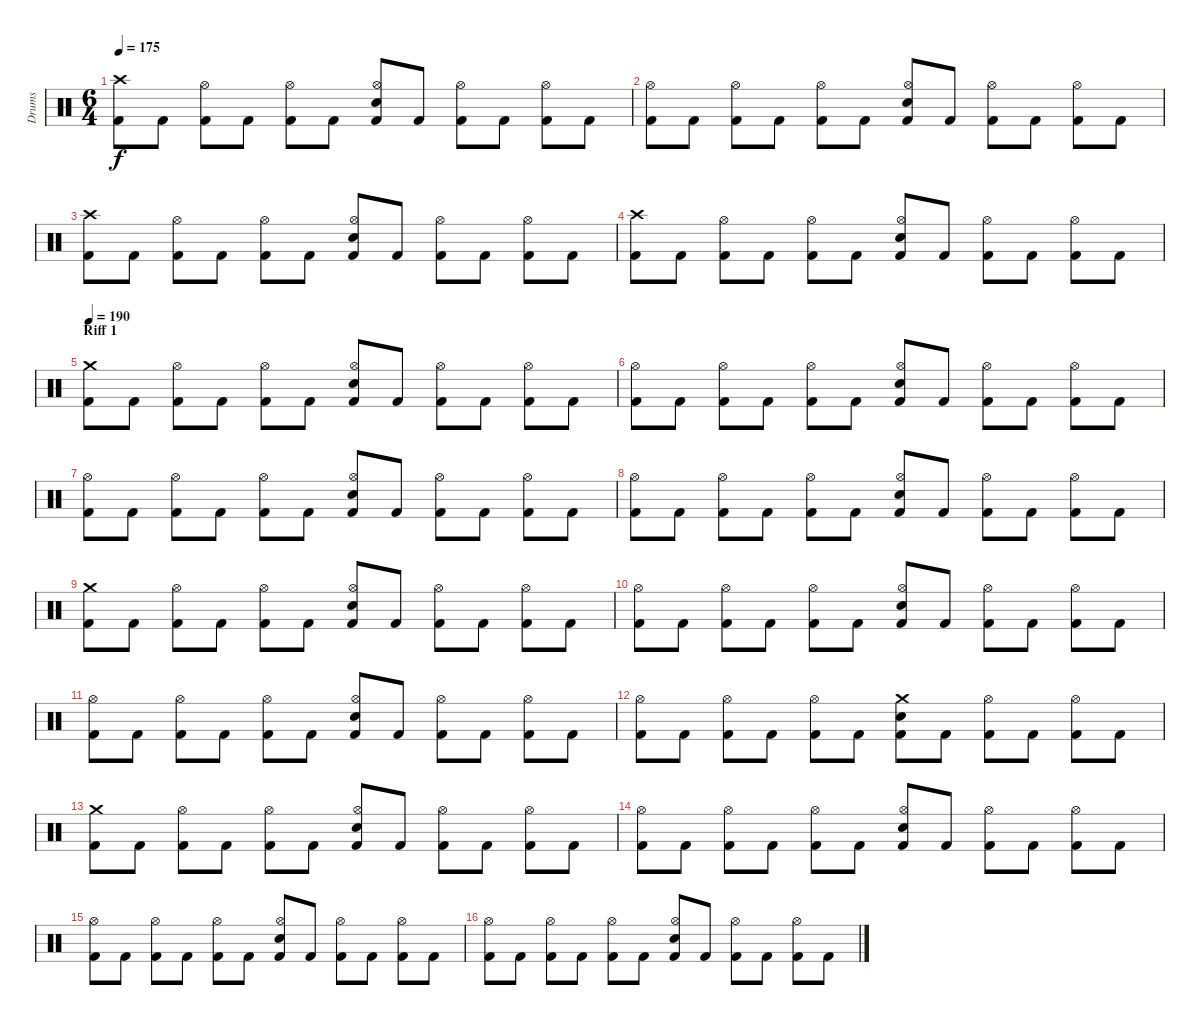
\track ("Drums" "Drums") {instrument percussion}
\staff {score}
\articulation defaults
\ts (6 4)
\tempo 175
\clef neutral
\ks c
("Crash high (hit)" "Kick (hit) 2").8{dy f} "Kick (hit) 2".8 ("Hi-Hat (open)" "Kick (hit) 2").8 "Kick (hit) 2".8 ("Hi-Hat (open)" "Kick (hit) 2").8 "Kick (hit) 2".8 ("Hi-Hat (open)" "Electric Snare (hit)" "Kick (hit) 2").8 "Kick (hit) 2".8 ("Hi-Hat (open)" "Kick (hit) 2").8 "Kick (hit) 2".8 ("Hi-Hat (open)" "Kick (hit) 2").8 "Kick (hit) 2".8 |
("Hi-Hat (open)" "Kick (hit) 2").8 "Kick (hit) 2".8 ("Hi-Hat (open)" "Kick (hit) 2").8 "Kick (hit) 2".8 ("Hi-Hat (open)" "Kick (hit) 2").8 "Kick (hit) 2".8 ("Hi-Hat (open)" "Electric Snare (hit)" "Kick (hit) 2").8 "Kick (hit) 2".8 ("Hi-Hat (open)" "Kick (hit) 2").8 "Kick (hit) 2".8 ("Hi-Hat (open)" "Kick (hit) 2").8 "Kick (hit) 2".8 |
("Crash high (hit)" "Kick (hit) 2").8 "Kick (hit) 2".8 ("Hi-Hat (open)" "Kick (hit) 2").8 "Kick (hit) 2".8 ("Hi-Hat (open)" "Kick (hit) 2").8 "Kick (hit) 2".8 ("Hi-Hat (open)" "Electric Snare (hit)" "Kick (hit) 2").8 "Kick (hit) 2".8 ("Hi-Hat (open)" "Kick (hit) 2").8 "Kick (hit) 2".8 ("Hi-Hat (open)" "Kick (hit) 2").8 "Kick (hit) 2".8 |
("Crash high (hit)" "Kick (hit) 2").8 "Kick (hit) 2".8 ("Hi-Hat (open)" "Kick (hit) 2").8 "Kick (hit) 2".8 ("Hi-Hat (open)" "Kick (hit) 2").8 "Kick (hit) 2".8 ("Hi-Hat (open)" "Electric Snare (hit)" "Kick (hit) 2").8 "Kick (hit) 2".8 ("Hi-Hat (open)" "Kick (hit) 2").8 "Kick (hit) 2".8 ("Hi-Hat (open)" "Kick (hit) 2").8 "Kick (hit) 2".8 |
\section ("" "Riff 1")
\tempo 190
("Crash medium (hit)" "Kick (hit) 2").8{volume 13} "Kick (hit) 2".8 ("Hi-Hat (open)" "Kick (hit) 2").8 "Kick (hit) 2".8 ("Hi-Hat (open)" "Kick (hit) 2").8 "Kick (hit) 2".8 ("Hi-Hat (open)" "Electric Snare (hit)" "Kick (hit) 2").8 "Kick (hit) 2".8 ("Hi-Hat (open)" "Kick (hit) 2").8 "Kick (hit) 2".8 ("Hi-Hat (open)" "Kick (hit) 2").8 "Kick (hit) 2".8 |
("Hi-Hat (open)" "Kick (hit) 2").8 "Kick (hit) 2".8 ("Hi-Hat (open)" "Kick (hit) 2").8 "Kick (hit) 2".8 ("Hi-Hat (open)" "Kick (hit) 2").8 "Kick (hit) 2".8 ("Hi-Hat (open)" "Electric Snare (hit)" "Kick (hit) 2").8 "Kick (hit) 2".8 ("Hi-Hat (open)" "Kick (hit) 2").8 "Kick (hit) 2".8 ("Hi-Hat (open)" "Kick (hit) 2").8 "Kick (hit) 2".8 |
("Hi-Hat (open)" "Kick (hit) 2").8 "Kick (hit) 2".8 ("Hi-Hat (open)" "Kick (hit) 2").8 "Kick (hit) 2".8 ("Hi-Hat (open)" "Kick (hit) 2").8 "Kick (hit) 2".8 ("Hi-Hat (open)" "Electric Snare (hit)" "Kick (hit) 2").8 "Kick (hit) 2".8 ("Hi-Hat (open)" "Kick (hit) 2").8 "Kick (hit) 2".8 ("Hi-Hat (open)" "Kick (hit) 2").8 "Kick (hit) 2".8 |
("Hi-Hat (open)" "Kick (hit) 2").8 "Kick (hit) 2".8 ("Hi-Hat (open)" "Kick (hit) 2").8 "Kick (hit) 2".8 ("Hi-Hat (open)" "Kick (hit) 2").8 "Kick (hit) 2".8 ("Hi-Hat (open)" "Electric Snare (hit)" "Kick (hit) 2").8 "Kick (hit) 2".8 ("Hi-Hat (open)" "Kick (hit) 2").8 "Kick (hit) 2".8 ("Hi-Hat (open)" "Kick (hit) 2").8 "Kick (hit) 2".8 |
("Crash medium (hit)" "Kick (hit) 2").8 "Kick (hit) 2".8 ("Hi-Hat (open)" "Kick (hit) 2").8 "Kick (hit) 2".8 ("Hi-Hat (open)" "Kick (hit) 2").8 "Kick (hit) 2".8 ("Hi-Hat (open)" "Electric Snare (hit)" "Kick (hit) 2").8 "Kick (hit) 2".8 ("Hi-Hat (open)" "Kick (hit) 2").8 "Kick (hit) 2".8 ("Hi-Hat (open)" "Kick (hit) 2").8 "Kick (hit) 2".8 |
("Hi-Hat (open)" "Kick (hit) 2").8 "Kick (hit) 2".8 ("Hi-Hat (open)" "Kick (hit) 2").8 "Kick (hit) 2".8 ("Hi-Hat (open)" "Kick (hit) 2").8 "Kick (hit) 2".8 ("Hi-Hat (open)" "Electric Snare (hit)" "Kick (hit) 2").8 "Kick (hit) 2".8 ("Hi-Hat (open)" "Kick (hit) 2").8 "Kick (hit) 2".8 ("Hi-Hat (open)" "Kick (hit) 2").8 "Kick (hit) 2".8 |
("Hi-Hat (open)" "Kick (hit) 2").8 "Kick (hit) 2".8 ("Hi-Hat (open)" "Kick (hit) 2").8 "Kick (hit) 2".8 ("Hi-Hat (open)" "Kick (hit) 2").8 "Kick (hit) 2".8 ("Hi-Hat (open)" "Electric Snare (hit)" "Kick (hit) 2").8 "Kick (hit) 2".8 ("Hi-Hat (open)" "Kick (hit) 2").8 "Kick (hit) 2".8 ("Hi-Hat (open)" "Kick (hit) 2").8 "Kick (hit) 2".8 |
("Hi-Hat (open)" "Kick (hit) 2").8 "Kick (hit) 2".8 ("Hi-Hat (open)" "Kick (hit) 2").8 "Kick (hit) 2".8 ("Hi-Hat (open)" "Kick (hit) 2").8 "Kick (hit) 2".8 ("Crash medium (hit)" "Electric Snare (hit)" "Kick (hit) 2").8 "Kick (hit) 2".8 ("Hi-Hat (open)" "Kick (hit) 2").8 "Kick (hit) 2".8 ("Hi-Hat (open)" "Kick (hit) 2").8 "Kick (hit) 2".8 |
("Crash medium (hit)" "Kick (hit) 2").8{volume 13} "Kick (hit) 2".8 ("Hi-Hat (open)" "Kick (hit) 2").8 "Kick (hit) 2".8 ("Hi-Hat (open)" "Kick (hit) 2").8 "Kick (hit) 2".8 ("Hi-Hat (open)" "Electric Snare (hit)" "Kick (hit) 2").8 "Kick (hit) 2".8 ("Hi-Hat (open)" "Kick (hit) 2").8 "Kick (hit) 2".8 ("Hi-Hat (open)" "Kick (hit) 2").8 "Kick (hit) 2".8 |
("Hi-Hat (open)" "Kick (hit) 2").8 "Kick (hit) 2".8 ("Hi-Hat (open)" "Kick (hit) 2").8 "Kick (hit) 2".8 ("Hi-Hat (open)" "Kick (hit) 2").8 "Kick (hit) 2".8 ("Hi-Hat (open)" "Electric Snare (hit)" "Kick (hit) 2").8 "Kick (hit) 2".8 ("Hi-Hat (open)" "Kick (hit) 2").8 "Kick (hit) 2".8 ("Hi-Hat (open)" "Kick (hit) 2").8 "Kick (hit) 2".8 |
("Hi-Hat (open)" "Kick (hit) 2").8 "Kick (hit) 2".8 ("Hi-Hat (open)" "Kick (hit) 2").8 "Kick (hit) 2".8 ("Hi-Hat (open)" "Kick (hit) 2").8 "Kick (hit) 2".8 ("Hi-Hat (open)" "Electric Snare (hit)" "Kick (hit) 2").8 "Kick (hit) 2".8 ("Hi-Hat (open)" "Kick (hit) 2").8 "Kick (hit) 2".8 ("Hi-Hat (open)" "Kick (hit) 2").8 "Kick (hit) 2".8 |
("Hi-Hat (open)" "Kick (hit) 2").8 "Kick (hit) 2".8 ("Hi-Hat (open)" "Kick (hit) 2").8 "Kick (hit) 2".8 ("Hi-Hat (open)" "Kick (hit) 2").8 "Kick (hit) 2".8 ("Hi-Hat (open)" "Electric Snare (hit)" "Kick (hit) 2").8 "Kick (hit) 2".8 ("Hi-Hat (open)" "Kick (hit) 2").8 "Kick (hit) 2".8 ("Hi-Hat (open)" "Kick (hit) 2").8 "Kick (hit) 2".8
